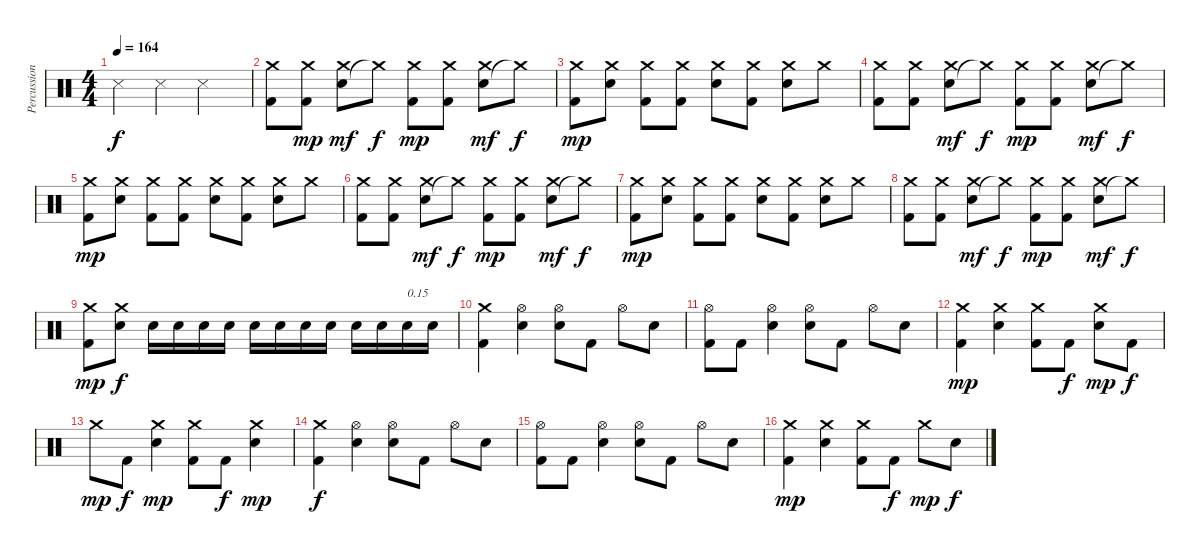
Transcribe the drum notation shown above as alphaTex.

\track ("Percussions" "Percussion") {instrument percussion}
\staff {score}
\articulation defaults
\ts (4 4)
\tempo 164
\clef neutral
\ks c "Metronome (hit)".4{dy f} "Metronome (hit)".4 "Metronome (hit)".2
|
("Kick (hit) 2" "Crash medium (hit)").8 ("Kick (hit) 2" "Crash medium (hit)").8{dy mp} ("Snare (hit) 2" "Crash medium (hit)").8{dy mf} "Crash medium (hit)"{t}.8{dy f} ("Kick (hit) 2" "Crash medium (hit)").8{dy mp} ("Kick (hit) 2" "Crash medium (hit)").8 ("Snare (hit) 2" "Crash medium (hit)").8{dy mf} "Crash medium (hit)"{t}.8{dy f} |
("Kick (hit) 2" "Crash medium (hit)").8{dy mp} ("Snare (hit) 2" "Crash medium (hit)").8 ("Kick (hit) 2" "Crash medium (hit)").8 ("Kick (hit) 2" "Crash medium (hit)").8 ("Snare (hit) 2" "Crash medium (hit)").8 ("Kick (hit) 2" "Crash medium (hit)").8 ("Snare (hit) 2" "Crash medium (hit)").8 "Crash medium (hit)".8 |
("Kick (hit) 2" "Crash medium (hit)").8 ("Kick (hit) 2" "Crash medium (hit)").8 ("Snare (hit) 2" "Crash medium (hit)").8{dy mf} "Crash medium (hit)"{t}.8{dy f} ("Kick (hit) 2" "Crash medium (hit)").8{dy mp} ("Kick (hit) 2" "Crash medium (hit)").8 ("Snare (hit) 2" "Crash medium (hit)").8{dy mf} "Crash medium (hit)"{t}.8{dy f} |
("Kick (hit) 2" "Crash medium (hit)").8{dy mp} ("Snare (hit) 2" "Crash medium (hit)").8 ("Kick (hit) 2" "Crash medium (hit)").8 ("Kick (hit) 2" "Crash medium (hit)").8 ("Snare (hit) 2" "Crash medium (hit)").8 ("Kick (hit) 2" "Crash medium (hit)").8 ("Snare (hit) 2" "Crash medium (hit)").8 "Crash medium (hit)".8 |
("Kick (hit) 2" "Crash medium (hit)").8 ("Kick (hit) 2" "Crash medium (hit)").8 ("Snare (hit) 2" "Crash medium (hit)").8{dy mf} "Crash medium (hit)"{t}.8{dy f} ("Kick (hit) 2" "Crash medium (hit)").8{dy mp} ("Kick (hit) 2" "Crash medium (hit)").8 ("Snare (hit) 2" "Crash medium (hit)").8{dy mf} "Crash medium (hit)"{t}.8{dy f} |
("Kick (hit) 2" "Crash medium (hit)").8{dy mp} ("Snare (hit) 2" "Crash medium (hit)").8 ("Kick (hit) 2" "Crash medium (hit)").8 ("Kick (hit) 2" "Crash medium (hit)").8 ("Snare (hit) 2" "Crash medium (hit)").8 ("Kick (hit) 2" "Crash medium (hit)").8 ("Snare (hit) 2" "Crash medium (hit)").8 "Crash medium (hit)".8 |
("Kick (hit) 2" "Crash medium (hit)").8 ("Kick (hit) 2" "Crash medium (hit)").8 ("Snare (hit) 2" "Crash medium (hit)").8{dy mf} "Crash medium (hit)"{t}.8{dy f} ("Kick (hit) 2" "Crash medium (hit)").8{dy mp} ("Kick (hit) 2" "Crash medium (hit)").8 ("Snare (hit) 2" "Crash medium (hit)").8{dy mf} "Crash medium (hit)"{t}.8{dy f} |
("Kick (hit) 2" "Crash medium (hit)").8{dy mp} ("Snare (hit) 2" "Crash medium (hit)").8{dy f} "Snare (hit) 2".16 "Snare (hit) 2".16 "Snare (hit) 2".16 "Snare (hit) 2".16 "Snare (hit) 2".16 "Snare (hit) 2".16 "Snare (hit) 2".16 "Snare (hit) 2".16 "Snare (hit) 2".16 "Snare (hit) 2".16 "Snare (hit) 2".16{txt "0.15"} "Snare (hit) 2".16 |
("Kick (hit) 2" "Crash medium (hit)").4 ("Snare (hit) 2" "Hi-Hat (open)").4 ("Snare (hit) 2" "Hi-Hat (open)").8 "Kick (hit) 2".8 "Hi-Hat (open)".8 "Snare (hit) 2".8 |
("Kick (hit) 2" "Hi-Hat (open)").8 "Kick (hit) 2".8 ("Snare (hit) 2" "Hi-Hat (open)").4 ("Snare (hit) 2" "Hi-Hat (open)").8 "Kick (hit) 2".8 "Hi-Hat (open)".8 "Snare (hit) 2".8 |
("Kick (hit) 2" "Crash medium (hit)").4{dy mp} ("Snare (hit) 2" "Crash medium (hit)").4 ("Kick (hit) 2" "Crash medium (hit)").8 "Kick (hit) 2".8{dy f} ("Snare (hit) 2" "Crash medium (hit)").8{dy mp} "Kick (hit) 2".8{dy f} |
"Crash medium (hit)".8{dy mp} "Kick (hit) 2".8{dy f} ("Snare (hit) 2" "Crash medium (hit)").4{dy mp} ("Kick (hit) 2" "Crash medium (hit)").8 "Kick (hit) 2".8{dy f} ("Snare (hit) 2" "Crash medium (hit)").4{dy mp} |
("Kick (hit) 2" "Crash medium (hit)").4{dy f} ("Snare (hit) 2" "Hi-Hat (open)").4 ("Snare (hit) 2" "Hi-Hat (open)").8 "Kick (hit) 2".8 "Hi-Hat (open)".8 "Snare (hit) 2".8 |
("Kick (hit) 2" "Hi-Hat (open)").8 "Kick (hit) 2".8 ("Snare (hit) 2" "Hi-Hat (open)").4 ("Snare (hit) 2" "Hi-Hat (open)").8 "Kick (hit) 2".8 "Hi-Hat (open)".8 "Snare (hit) 2".8 |
("Kick (hit) 2" "Crash medium (hit)").4{dy mp} ("Snare (hit) 2" "Crash medium (hit)").4 ("Kick (hit) 2" "Crash medium (hit)").8 "Kick (hit) 2".8{dy f} "Crash medium (hit)".8{dy mp} "Snare (hit) 2".8{dy f}
